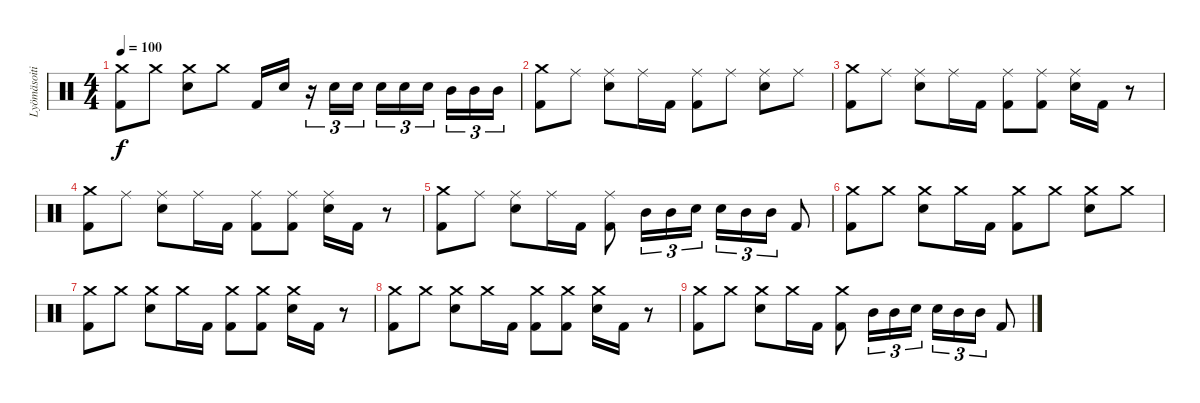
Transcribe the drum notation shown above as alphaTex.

\track ("Lyömäsoitin" "Lyömäsoiti") {instrument percussion}
\staff {score}
\articulation defaults
\ts (4 4)
\tempo 100
\clef neutral
\ks c
("Crash medium (hit)" "Kick (hit) 2").8{dy f} "Crash medium (hit)".8 ("Crash medium (hit)" "Electric Snare (hit)").8 "Crash medium (hit)".8 "Kick (hit) 2".16 "Electric Snare (hit)".16 r.16{tu (3 2)} "Electric Snare (hit)".16{tu (3 2)} "Electric Snare (hit)".16{tu (3 2)} "Electric Snare (hit)".16{tu (3 2)} "Electric Snare (hit)".16{tu (3 2)} "Electric Snare (hit)".16{tu (3 2) beam splitsecondary} "Mid Tom (hit)".16{tu (3 2)} "Mid Tom (hit)".16{tu (3 2)} "Mid Tom (hit)".16{tu (3 2)} |
("Crash medium (hit)" "Kick (hit) 2").8 "Ride (middle)".8 ("Ride (middle)" "Electric Snare (hit)").8 "Ride (middle)".16 "Kick (hit) 2".16 ("Ride (middle)" "Kick (hit) 2").8 "Ride (middle)".8 ("Ride (middle)" "Electric Snare (hit)").8 "Ride (middle)".8 |
("Crash medium (hit)" "Kick (hit) 2").8 "Ride (middle)".8 ("Ride (middle)" "Electric Snare (hit)").8 "Ride (middle)".16 "Kick (hit) 2".16 ("Ride (middle)" "Kick (hit) 2").8 ("Ride (middle)" "Kick (hit) 2").8 ("Ride (middle)" "Electric Snare (hit)").16 "Kick (hit) 2".16 r.8 |
("Crash medium (hit)" "Kick (hit) 2").8 "Ride (middle)".8 ("Ride (middle)" "Electric Snare (hit)").8 "Ride (middle)".16 "Kick (hit) 2".16 ("Ride (middle)" "Kick (hit) 2").8 ("Ride (middle)" "Kick (hit) 2").8 ("Ride (middle)" "Electric Snare (hit)").16 "Kick (hit) 2".16 r.8 |
("Crash medium (hit)" "Kick (hit) 2").8 "Ride (middle)".8 ("Ride (middle)" "Electric Snare (hit)").8 "Ride (middle)".16 "Kick (hit) 2".16 ("Ride (middle)" "Kick (hit) 2").8 "Mid Tom (hit)".16{tu (3 2)} "Mid Tom (hit)".16{tu (3 2)} "Electric Snare (hit)".16{tu (3 2)} "Electric Snare (hit)".16{tu (3 2)} "Mid Tom (hit)".16{tu (3 2)} "Mid Tom (hit)".16{tu (3 2)} "Kick (hit) 2".8 |
("Crash medium (hit)" "Kick (hit) 2").8 "Crash medium (hit)".8 ("Crash medium (hit)" "Electric Snare (hit)").8 "Crash medium (hit)".16 "Kick (hit) 2".16 ("Crash medium (hit)" "Kick (hit) 2").8 "Crash medium (hit)".8 ("Crash medium (hit)" "Electric Snare (hit)").8 "Crash medium (hit)".8 |
("Crash medium (hit)" "Kick (hit) 2").8 "Crash medium (hit)".8 ("Crash medium (hit)" "Electric Snare (hit)").8 "Crash medium (hit)".16 "Kick (hit) 2".16 ("Crash medium (hit)" "Kick (hit) 2").8 ("Crash medium (hit)" "Kick (hit) 2").8 ("Crash medium (hit)" "Electric Snare (hit)").16 "Kick (hit) 2".16 r.8 |
("Crash medium (hit)" "Kick (hit) 2").8 "Crash medium (hit)".8 ("Crash medium (hit)" "Electric Snare (hit)").8 "Crash medium (hit)".16 "Kick (hit) 2".16 ("Crash medium (hit)" "Kick (hit) 2").8 ("Crash medium (hit)" "Kick (hit) 2").8 ("Crash medium (hit)" "Electric Snare (hit)").16 "Kick (hit) 2".16 r.8 |
("Crash medium (hit)" "Kick (hit) 2").8 "Crash medium (hit)".8 ("Crash medium (hit)" "Electric Snare (hit)").8 "Crash medium (hit)".16 "Kick (hit) 2".16 ("Crash medium (hit)" "Kick (hit) 2").8 "Mid Tom (hit)".16{tu (3 2)} "Mid Tom (hit)".16{tu (3 2)} "Electric Snare (hit)".16{tu (3 2)} "Electric Snare (hit)".16{tu (3 2)} "Mid Tom (hit)".16{tu (3 2)} "Mid Tom (hit)".16{tu (3 2)} "Kick (hit) 2".8
